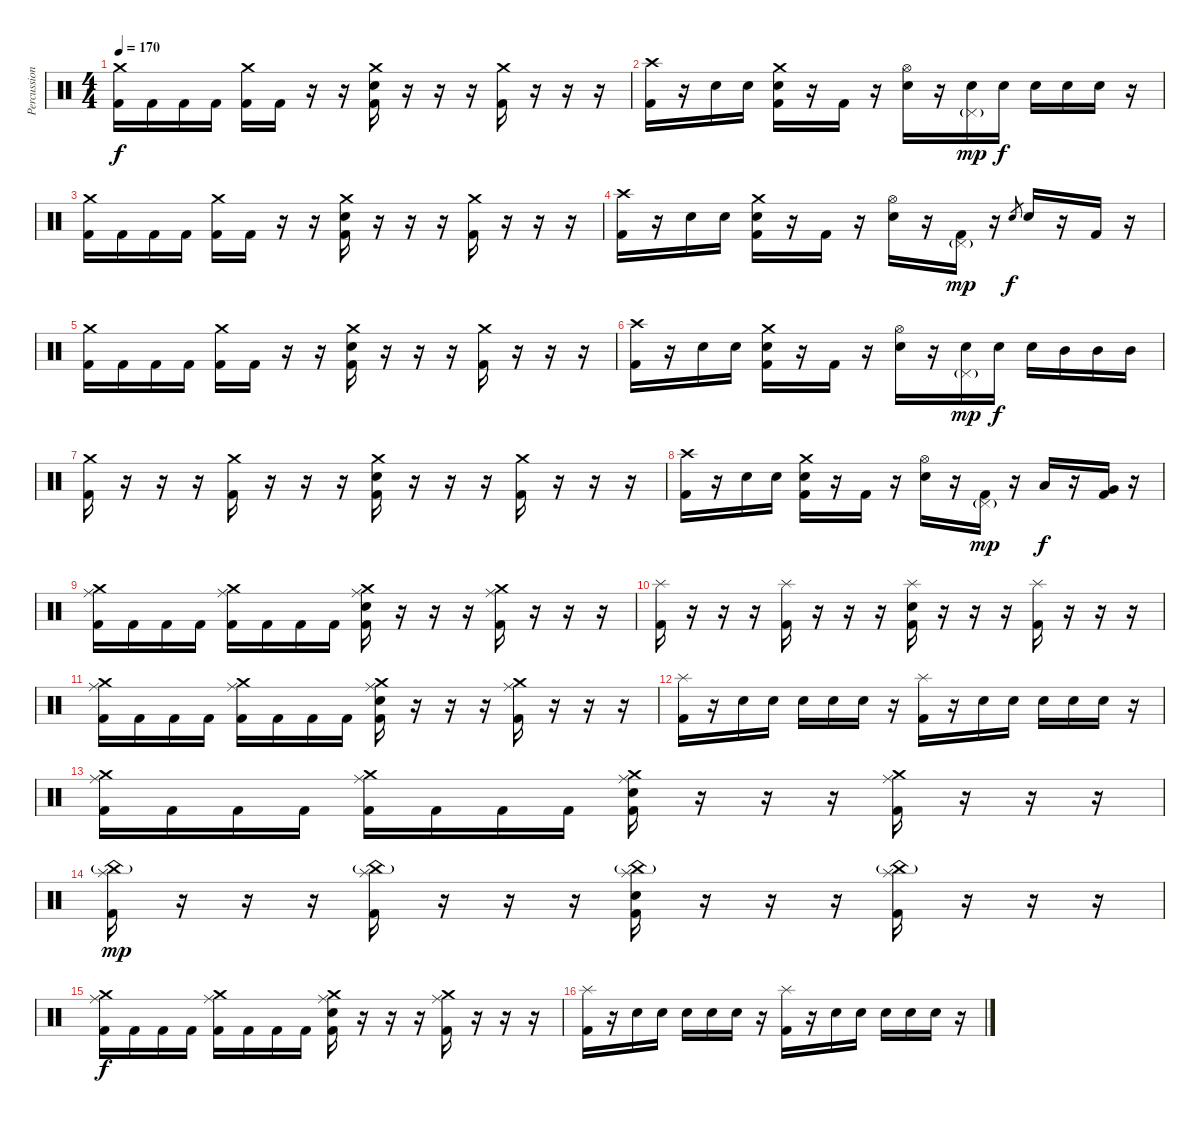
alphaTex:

\track ("Percussion" "Percussion") {instrument percussion}
\staff {score}
\articulation defaults
\ts (4 4)
\tempo 170
\clef neutral
\ks c
("Crash medium (hit)" "Kick (hit) 2").16{dy f} "Kick (hit) 2".16 "Kick (hit) 2".16 "Kick (hit) 2".16 ("Crash medium (hit)" "Kick (hit) 2").16 "Kick (hit) 2".16 r.16 r.16 ("Crash medium (hit)" "Electric Snare (hit)" "Kick (hit) 2").16 r.16 r.16 r.16 ("Crash medium (hit)" "Kick (hit) 2").16 r.16 r.16 r.16 |
("Crash high (hit)" "Kick (hit) 2").16 r.16 "Electric Snare (hit)".16 "Electric Snare (hit)".16 ("Crash medium (hit)" "Electric Snare (hit)" "Kick (hit) 2").16 r.16 "Kick (hit) 2".16 r.16 ("Hi-Hat (open)" "Electric Snare (hit)").16 r.16 ("Pedal Hi-Hat (hit)"{g} "Electric Snare (hit)").16{dy mp} "Electric Snare (hit)".16{dy f} "Electric Snare (hit)".16 "Electric Snare (hit)".16 "Electric Snare (hit)".16 r.16 |
("Crash medium (hit)" "Kick (hit) 2").16 "Kick (hit) 2".16 "Kick (hit) 2".16 "Kick (hit) 2".16 ("Crash medium (hit)" "Kick (hit) 2").16 "Kick (hit) 2".16 r.16 r.16 ("Crash medium (hit)" "Electric Snare (hit)" "Kick (hit) 2").16 r.16 r.16 r.16 ("Crash medium (hit)" "Kick (hit) 2").16 r.16 r.16 r.16 |
("Crash high (hit)" "Kick (hit) 2").16 r.16 "Electric Snare (hit)".16 "Electric Snare (hit)".16 ("Crash medium (hit)" "Electric Snare (hit)" "Kick (hit) 2").16 r.16 "Kick (hit) 2".16 r.16 ("Hi-Hat (open)" "Electric Snare (hit)").16 r.16 ("Pedal Hi-Hat (hit)"{g} "Kick (hit) 2").16{dy mp} r.16 "Electric Snare (hit)".8{gr dy f} "Electric Snare (hit)".16 r.16 "Kick (hit) 2".16 r.16 |
("Crash medium (hit)" "Kick (hit) 2").16 "Kick (hit) 2".16 "Kick (hit) 2".16 "Kick (hit) 2".16 ("Crash medium (hit)" "Kick (hit) 2").16 "Kick (hit) 2".16 r.16 r.16 ("Crash medium (hit)" "Electric Snare (hit)" "Kick (hit) 2").16 r.16 r.16 r.16 ("Crash medium (hit)" "Kick (hit) 2").16 r.16 r.16 r.16 |
("Crash high (hit)" "Kick (hit) 2").16 r.16 "Electric Snare (hit)".16 "Electric Snare (hit)".16 ("Crash medium (hit)" "Electric Snare (hit)" "Kick (hit) 2").16 r.16 "Kick (hit) 2".16 r.16 ("Hi-Hat (open)" "Electric Snare (hit)").16 r.16 ("Pedal Hi-Hat (hit)"{g} "Electric Snare (hit)").16{dy mp} "Electric Snare (hit)".16{dy f} "Electric Snare (hit)".16 "Mid Tom (hit)".16 "Mid Tom (hit)".16 "Mid Tom (hit)".16 |
("Crash medium (hit)" "Kick (hit) 2").16 r.16 r.16 r.16 ("Crash medium (hit)" "Kick (hit) 2").16 r.16 r.16 r.16 ("Crash medium (hit)" "Electric Snare (hit)" "Kick (hit) 2").16 r.16 r.16 r.16 ("Crash medium (hit)" "Kick (hit) 2").16 r.16 r.16 r.16 |
("Crash high (hit)" "Kick (hit) 2").16 r.16 "Electric Snare (hit)".16 "Electric Snare (hit)".16 ("Crash medium (hit)" "Electric Snare (hit)" "Kick (hit) 2").16 r.16 "Kick (hit) 2".16 r.16 ("Hi-Hat (open)" "Electric Snare (hit)").16 r.16 ("Pedal Hi-Hat (hit)"{g} "Kick (hit) 2").16{dy mp} r.16 "Low Tom (hit)".16{dy f} r.16 ("Very Low Tom (hit)" "Kick (hit) 2").16 r.16 |
("Crash medium (hit)" "Ride (middle)" "Kick (hit) 2").16 "Kick (hit) 2".16 "Kick (hit) 2".16 "Kick (hit) 2".16 ("Crash medium (hit)" "Ride (middle)" "Kick (hit) 2").16 "Kick (hit) 2".16 "Kick (hit) 2".16 "Kick (hit) 2".16 ("Crash medium (hit)" "Ride (middle)" "Electric Snare (hit)" "Kick (hit) 2").16 r.16 r.16 r.16 ("Crash medium (hit)" "Ride (middle)" "Kick (hit) 2").16 r.16 r.16 r.16 |
("Splash (hit)" "Kick (hit) 2").16 r.16 r.16 r.16 ("Splash (hit)" "Kick (hit) 2").16 r.16 r.16 r.16 ("Splash (hit)" "Electric Snare (hit)" "Kick (hit) 2").16 r.16 r.16 r.16 ("Splash (hit)" "Kick (hit) 2").16 r.16 r.16 r.16 |
("Crash medium (hit)" "Ride (middle)" "Kick (hit) 2").16 "Kick (hit) 2".16 "Kick (hit) 2".16 "Kick (hit) 2".16 ("Crash medium (hit)" "Ride (middle)" "Kick (hit) 2").16 "Kick (hit) 2".16 "Kick (hit) 2".16 "Kick (hit) 2".16 ("Crash medium (hit)" "Ride (middle)" "Electric Snare (hit)" "Kick (hit) 2").16 r.16 r.16 r.16 ("Crash medium (hit)" "Ride (middle)" "Kick (hit) 2").16 r.16 r.16 r.16 |
("Splash (hit)" "Kick (hit) 2").16 r.16 "Electric Snare (hit)".16 "Electric Snare (hit)".16 "Electric Snare (hit)".16 "Electric Snare (hit)".16 "Electric Snare (hit)".16 r.16 ("Splash (hit)" "Kick (hit) 2").16 r.16 "Electric Snare (hit)".16 "Electric Snare (hit)".16 "Electric Snare (hit)".16 "Electric Snare (hit)".16 "Electric Snare (hit)".16 r.16 |
("Crash medium (hit)" "Ride (middle)" "Kick (hit) 2").16 "Kick (hit) 2".16 "Kick (hit) 2".16 "Kick (hit) 2".16 ("Crash medium (hit)" "Ride (middle)" "Kick (hit) 2").16 "Kick (hit) 2".16 "Kick (hit) 2".16 "Kick (hit) 2".16 ("Crash medium (hit)" "Ride (middle)" "Electric Snare (hit)" "Kick (hit) 2").16 r.16 r.16 r.16 ("Crash medium (hit)" "Ride (middle)" "Kick (hit) 2").16 r.16 r.16 r.16 |
("China (hit)"{g} "Splash (hit)" "Kick (hit) 2").16{dy mp} r.16 r.16 r.16 ("China (hit)"{g} "Splash (hit)" "Kick (hit) 2").16 r.16 r.16 r.16 ("China (hit)"{g} "Splash (hit)" "Electric Snare (hit)" "Kick (hit) 2").16 r.16 r.16 r.16 ("China (hit)"{g} "Splash (hit)" "Kick (hit) 2").16 r.16 r.16 r.16 |
("Crash medium (hit)" "Ride (middle)" "Kick (hit) 2").16{dy f} "Kick (hit) 2".16 "Kick (hit) 2".16 "Kick (hit) 2".16 ("Crash medium (hit)" "Ride (middle)" "Kick (hit) 2").16 "Kick (hit) 2".16 "Kick (hit) 2".16 "Kick (hit) 2".16 ("Crash medium (hit)" "Ride (middle)" "Electric Snare (hit)" "Kick (hit) 2").16 r.16 r.16 r.16 ("Crash medium (hit)" "Ride (middle)" "Kick (hit) 2").16 r.16 r.16 r.16 |
("Splash (hit)" "Kick (hit) 2").16 r.16 "Electric Snare (hit)".16 "Electric Snare (hit)".16 "Electric Snare (hit)".16 "Electric Snare (hit)".16 "Electric Snare (hit)".16 r.16 ("Splash (hit)" "Kick (hit) 2").16 r.16 "Electric Snare (hit)".16 "Electric Snare (hit)".16 "Electric Snare (hit)".16 "Electric Snare (hit)".16 "Electric Snare (hit)".16 r.16
